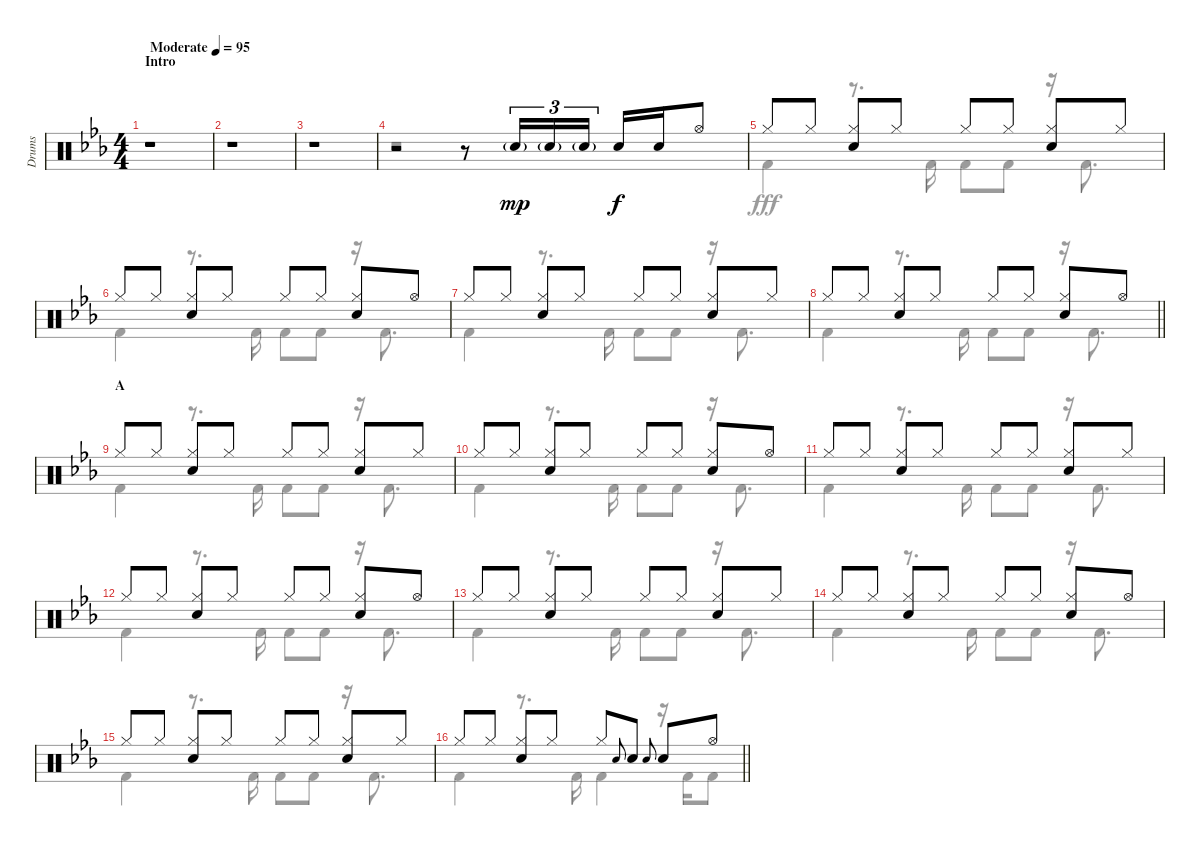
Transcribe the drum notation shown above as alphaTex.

\track ("Drums" "Drums") {instrument percussion}
\staff {score}
\articulation defaults
\voice
\ts (4 4)
\section ("" "Intro")
\tempo (95 "Moderate")
\clef neutral
\ks cminor
r.1{dy mp} |
r.1 |
r.1 |
r.2 r.8 "Snare (hit) 2"{g}.16{tu (3 2)} "Snare (hit) 2"{g}.16{tu (3 2)} "Snare (hit) 2"{g}.16{tu (3 2)} "Snare (hit) 2".16{dy f} "Snare (hit) 2".16 "Hi-Hat (open)".8 |
"Hi-Hat (closed)".8 "Hi-Hat (closed)".8 ("Hi-Hat (closed)" "Snare (hit) 2").8 "Hi-Hat (closed)".8 "Hi-Hat (closed)".8 "Hi-Hat (closed)".8 ("Hi-Hat (closed)" "Snare (hit) 2").8 "Hi-Hat (closed)".8 |
"Hi-Hat (closed)".8 "Hi-Hat (closed)".8 ("Hi-Hat (closed)" "Snare (hit) 2").8 "Hi-Hat (closed)".8 "Hi-Hat (closed)".8 "Hi-Hat (closed)".8 ("Hi-Hat (closed)" "Snare (hit) 2").8 "Hi-Hat (open)".8 |
"Hi-Hat (closed)".8 "Hi-Hat (closed)".8 ("Hi-Hat (closed)" "Snare (hit) 2").8 "Hi-Hat (closed)".8 "Hi-Hat (closed)".8 "Hi-Hat (closed)".8 ("Hi-Hat (closed)" "Snare (hit) 2").8 "Hi-Hat (closed)".8 |
\barLineRight lightlight "Hi-Hat (closed)".8 "Hi-Hat (closed)".8
("Hi-Hat (closed)" "Snare (hit) 2").8 "Hi-Hat (closed)".8 "Hi-Hat (closed)".8 "Hi-Hat (closed)".8 ("Hi-Hat (closed)" "Snare (hit) 2").8 "Hi-Hat (open)".8 |
\section ("" "A")
"Hi-Hat (closed)".8 "Hi-Hat (closed)".8 ("Hi-Hat (closed)" "Snare (hit) 2").8 "Hi-Hat (closed)".8 "Hi-Hat (closed)".8 "Hi-Hat (closed)".8 ("Hi-Hat (closed)" "Snare (hit) 2").8 "Hi-Hat (closed)".8 |
"Hi-Hat (closed)".8 "Hi-Hat (closed)".8 ("Hi-Hat (closed)" "Snare (hit) 2").8 "Hi-Hat (closed)".8 "Hi-Hat (closed)".8 "Hi-Hat (closed)".8 ("Hi-Hat (closed)" "Snare (hit) 2").8 "Hi-Hat (open)".8 |
"Hi-Hat (closed)".8 "Hi-Hat (closed)".8 ("Hi-Hat (closed)" "Snare (hit) 2").8 "Hi-Hat (closed)".8 "Hi-Hat (closed)".8 "Hi-Hat (closed)".8 ("Hi-Hat (closed)" "Snare (hit) 2").8 "Hi-Hat (closed)".8 |
"Hi-Hat (closed)".8 "Hi-Hat (closed)".8 ("Hi-Hat (closed)" "Snare (hit) 2").8 "Hi-Hat (closed)".8 "Hi-Hat (closed)".8 "Hi-Hat (closed)".8 ("Hi-Hat (closed)" "Snare (hit) 2").8 "Hi-Hat (open)".8 |
"Hi-Hat (closed)".8 "Hi-Hat (closed)".8 ("Hi-Hat (closed)" "Snare (hit) 2").8 "Hi-Hat (closed)".8 "Hi-Hat (closed)".8 "Hi-Hat (closed)".8 ("Hi-Hat (closed)" "Snare (hit) 2").8 "Hi-Hat (closed)".8 |
"Hi-Hat (closed)".8 "Hi-Hat (closed)".8 ("Hi-Hat (closed)" "Snare (hit) 2").8 "Hi-Hat (closed)".8 "Hi-Hat (closed)".8 "Hi-Hat (closed)".8 ("Hi-Hat (closed)" "Snare (hit) 2").8 "Hi-Hat (open)".8 |
"Hi-Hat (closed)".8 "Hi-Hat (closed)".8 ("Hi-Hat (closed)" "Snare (hit) 2").8 "Hi-Hat (closed)".8 "Hi-Hat (closed)".8 "Hi-Hat (closed)".8 ("Hi-Hat (closed)" "Snare (hit) 2").8 "Hi-Hat (closed)".8 |
\barLineRight lightlight "Hi-Hat (closed)".8 "Hi-Hat (closed)".8
("Hi-Hat (closed)" "Snare (hit) 2").8 "Hi-Hat (closed)".8 "Hi-Hat (closed)".8 "Snare (hit) 2".8{gr onbeat} "Snare (hit) 2".8 "Snare (hit) 2".8{gr onbeat} "Snare (hit) 2".8 "Hi-Hat (open)".8
\voice
\clef neutral
\ottava regular
\simile none
\ks cminor
r.1{dy fff} |
r.1 |
r.1 |
r.1 |
"Kick (hit) 2".4 r.8{d} "Kick (hit) 2".16 "Kick (hit) 2".8 "Kick (hit) 2".8 r.16 "Kick (hit) 2".8{d} |
"Kick (hit) 2".4 r.8{d} "Kick (hit) 2".16 "Kick (hit) 2".8 "Kick (hit) 2".8 r.16 "Kick (hit) 2".8{d} |
"Kick (hit) 2".4 r.8{d} "Kick (hit) 2".16 "Kick (hit) 2".8 "Kick (hit) 2".8 r.16 "Kick (hit) 2".8{d} |
\barLineRight lightlight "Kick (hit) 2".4
r.8{d} "Kick (hit) 2".16 "Kick (hit) 2".8 "Kick (hit) 2".8 r.16 "Kick (hit) 2".8{d} |
"Kick (hit) 2".4 r.8{d} "Kick (hit) 2".16 "Kick (hit) 2".8 "Kick (hit) 2".8 r.16 "Kick (hit) 2".8{d} |
"Kick (hit) 2".4 r.8{d} "Kick (hit) 2".16 "Kick (hit) 2".8 "Kick (hit) 2".8 r.16 "Kick (hit) 2".8{d} |
"Kick (hit) 2".4 r.8{d} "Kick (hit) 2".16 "Kick (hit) 2".8 "Kick (hit) 2".8 r.16 "Kick (hit) 2".8{d} |
"Kick (hit) 2".4 r.8{d} "Kick (hit) 2".16 "Kick (hit) 2".8 "Kick (hit) 2".8 r.16 "Kick (hit) 2".8{d} |
"Kick (hit) 2".4 r.8{d} "Kick (hit) 2".16 "Kick (hit) 2".8 "Kick (hit) 2".8 r.16 "Kick (hit) 2".8{d} |
"Kick (hit) 2".4 r.8{d} "Kick (hit) 2".16 "Kick (hit) 2".8 "Kick (hit) 2".8 r.16 "Kick (hit) 2".8{d} |
"Kick (hit) 2".4 r.8{d} "Kick (hit) 2".16 "Kick (hit) 2".8 "Kick (hit) 2".8 r.16 "Kick (hit) 2".8{d} |
\barLineRight lightlight "Kick (hit) 2".4
r.8{d} "Kick (hit) 2".16 "Kick (hit) 2".4 r.16 "Kick (hit) 2".16 "Kick (hit) 2".8
